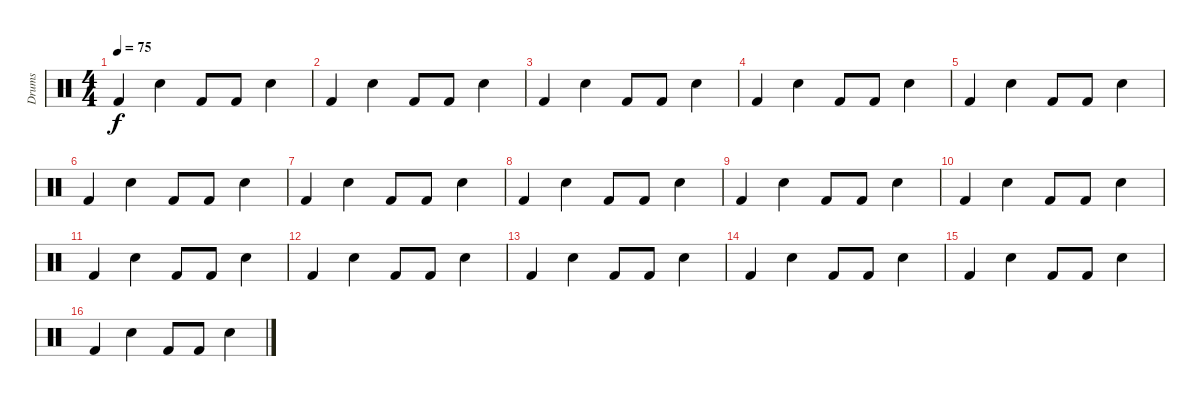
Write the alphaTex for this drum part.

\track ("Drums" "Drums") {instrument percussion}
\staff {score}
\articulation defaults
\ts (4 4)
\tempo 75
\clef neutral
\ks c "Kick (hit) 2".4{dy f} "Snare (hit) 2".4 "Kick (hit) 2".8 "Kick (hit) 2".8 "Snare (hit) 2".4
|
"Kick (hit) 2".4 "Snare (hit) 2".4 "Kick (hit) 2".8 "Kick (hit) 2".8 "Snare (hit) 2".4 |
"Kick (hit) 2".4 "Snare (hit) 2".4 "Kick (hit) 2".8 "Kick (hit) 2".8 "Snare (hit) 2".4 |
"Kick (hit) 2".4 "Snare (hit) 2".4 "Kick (hit) 2".8 "Kick (hit) 2".8 "Snare (hit) 2".4 |
"Kick (hit) 2".4 "Snare (hit) 2".4 "Kick (hit) 2".8 "Kick (hit) 2".8 "Snare (hit) 2".4 |
"Kick (hit) 2".4 "Snare (hit) 2".4 "Kick (hit) 2".8 "Kick (hit) 2".8 "Snare (hit) 2".4 |
"Kick (hit) 2".4 "Snare (hit) 2".4 "Kick (hit) 2".8 "Kick (hit) 2".8 "Snare (hit) 2".4 |
"Kick (hit) 2".4 "Snare (hit) 2".4 "Kick (hit) 2".8 "Kick (hit) 2".8 "Snare (hit) 2".4 |
"Kick (hit) 2".4 "Snare (hit) 2".4 "Kick (hit) 2".8 "Kick (hit) 2".8 "Snare (hit) 2".4 |
"Kick (hit) 2".4 "Snare (hit) 2".4 "Kick (hit) 2".8 "Kick (hit) 2".8 "Snare (hit) 2".4 |
"Kick (hit) 2".4 "Snare (hit) 2".4 "Kick (hit) 2".8 "Kick (hit) 2".8 "Snare (hit) 2".4 |
"Kick (hit) 2".4 "Snare (hit) 2".4 "Kick (hit) 2".8 "Kick (hit) 2".8 "Snare (hit) 2".4 |
"Kick (hit) 2".4 "Snare (hit) 2".4 "Kick (hit) 2".8 "Kick (hit) 2".8 "Snare (hit) 2".4 |
"Kick (hit) 2".4 "Snare (hit) 2".4 "Kick (hit) 2".8 "Kick (hit) 2".8 "Snare (hit) 2".4 |
"Kick (hit) 2".4 "Snare (hit) 2".4 "Kick (hit) 2".8 "Kick (hit) 2".8 "Snare (hit) 2".4 |
"Kick (hit) 2".4 "Snare (hit) 2".4 "Kick (hit) 2".8 "Kick (hit) 2".8 "Snare (hit) 2".4
